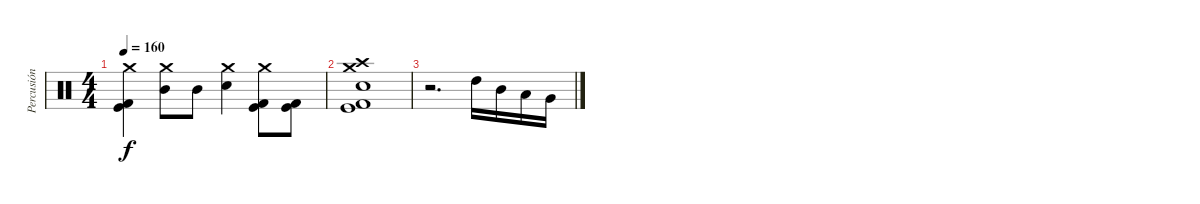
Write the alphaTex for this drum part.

\track ("Percusión" "Percusión") {instrument percussion}
\staff {score}
\articulation defaults
\ts (4 4)
\tempo 160
\clef neutral
\ks c
("Crash medium (hit)" "Kick (hit)" "Kick (hit) 2").4{dy f} ("Crash medium (hit)" "Mid Tom (hit)").8 "Mid Tom (hit)".8 ("Crash medium (hit)" "Electric Snare (hit)").4 ("Crash medium (hit)" "Kick (hit)" "Kick (hit) 2").8 ("Kick (hit)" "Kick (hit) 2").8 |
("Crash medium (hit)" "Crash high (hit)" "Electric Snare (hit)" "Kick (hit)" "Kick (hit) 2").1 |
r.2{d} "High Tom (hit)".16 "Mid Tom (hit)".16 "Low Tom (hit)".16 "Very Low Tom (hit)".16
